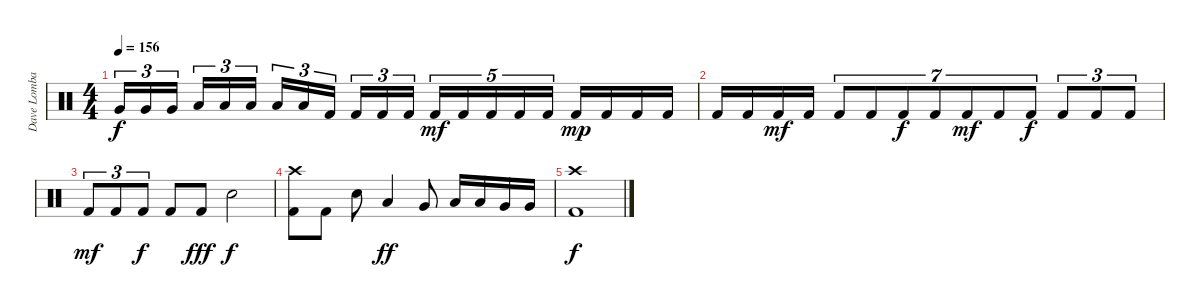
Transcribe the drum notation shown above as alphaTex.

\track ("Dave Lombardo" "Dave Lomba") {instrument percussion}
\staff {score}
\articulation defaults
\ts (4 4)
\tempo 156
\clef neutral
\ks c "Very Low Tom (hit)".16{tu (3 2) dy f} "Very Low Tom (hit)".16{tu (3 2)} "Very Low Tom (hit)".16{tu (3 2) beam splitsecondary} "Low Floor Tom (hit)".16{tu (3 2)} "Low Floor Tom (hit)".16{tu (3 2)} "Low Floor Tom (hit)".16{tu (3 2)} "Low Floor Tom (hit)".16{tu (3 2)} "Low Floor Tom (hit)".16{tu (3 2)} "Kick (hit) 2".16{tu (3 2) beam splitsecondary} "Kick (hit) 2".16{tu (3 2)} "Kick (hit) 2".16{tu (3 2)} "Kick (hit) 2".16{tu (3 2)} "Kick (hit) 2".16{tu (5 4) dy mf} "Kick (hit) 2".16{tu (5 4)} "Kick (hit) 2".16{tu (5 4)} "Kick (hit) 2".16{tu (5 4)} "Kick (hit) 2".16{tu (5 4)} "Kick (hit) 2".16{dy mp} "Kick (hit) 2".16 "Kick (hit) 2".16 "Kick (hit) 2".16
|
"Kick (hit) 2".16 "Kick (hit) 2".16 "Kick (hit) 2".16{dy mf} "Kick (hit) 2".16 "Kick (hit) 2".8{tu (7 4)} "Kick (hit) 2".8{tu (7 4)} "Kick (hit) 2".8{tu (7 4) dy f} "Kick (hit) 2".8{tu (7 4)} "Kick (hit) 2".8{tu (7 4) dy mf} "Kick (hit) 2".8{tu (7 4)} "Kick (hit) 2".8{tu (7 4) dy f} "Kick (hit) 2".8{tu (3 2)} "Kick (hit) 2".8{tu (3 2)} "Kick (hit) 2".8{tu (3 2)} |
"Kick (hit) 2".8{tu (3 2) dy mf} "Kick (hit) 2".8{tu (3 2)} "Kick (hit) 2".8{tu (3 2) dy f} "Kick (hit) 2".8 "Kick (hit) 2".8{dy fff} "Snare (hit) 2".2{dy f} |
("Crash high (hit)" "Kick (hit) 2").8 "Kick (hit) 2".8 "Snare (hit) 2".8 "Low Floor Tom (hit)".4{dy ff} "Very Low Tom (hit)".8 "Low Tom (hit)".16 "Low Tom (hit)".16 "Very Low Tom (hit)".16 "Very Low Tom (hit)".16 |
("Crash high (hit)" "Kick (hit) 2").1{dy f}
